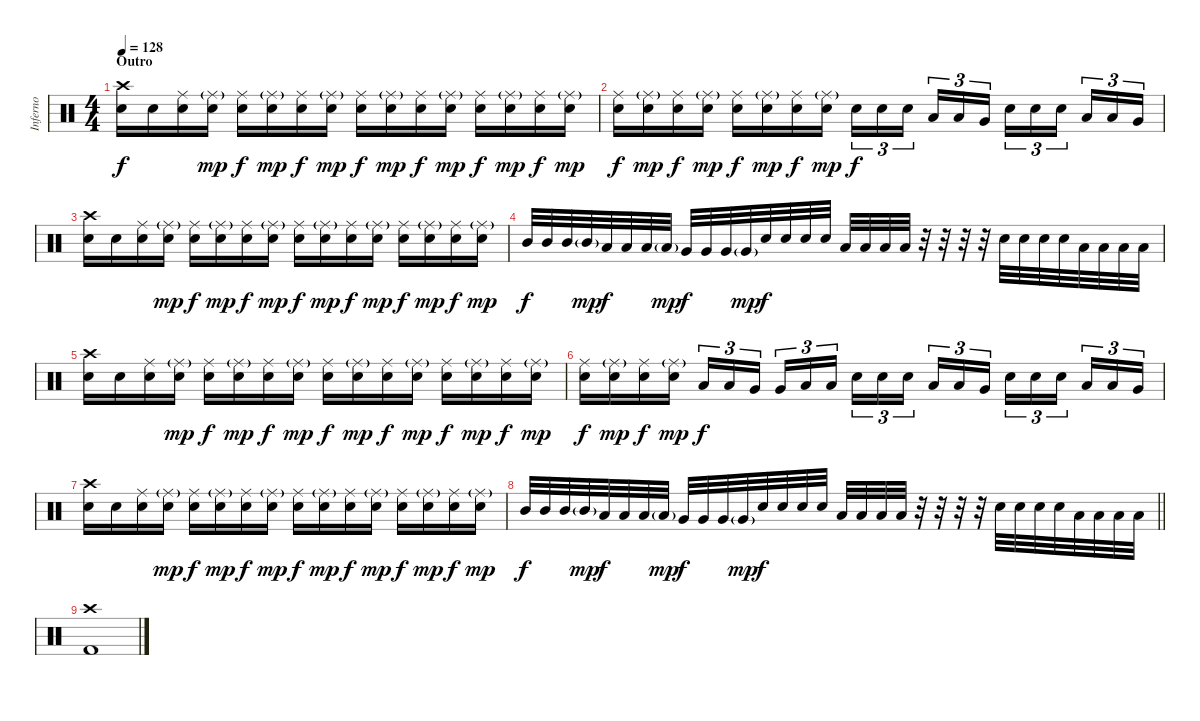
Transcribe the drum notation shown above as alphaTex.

\track ("Inferno" "Inferno") {instrument percussion}
\staff {score}
\articulation defaults
\ts (4 4)
\section ("" "Outro")
\tempo 128
\clef neutral
\ks c
("Crash high (hit)" "Snare (hit) 2").16{dy f} "Snare (hit) 2".16 ("Ride (middle)" "Snare (hit) 2").16 ("Ride (middle)"{g} "Snare (hit) 2").16{dy mp} ("Ride (middle)" "Snare (hit) 2").16{dy f} ("Ride (middle)"{g} "Snare (hit) 2").16{dy mp} ("Ride (middle)" "Snare (hit) 2").16{dy f} ("Ride (middle)"{g} "Snare (hit) 2").16{dy mp} ("Ride (middle)" "Snare (hit) 2").16{dy f} ("Ride (middle)"{g} "Snare (hit) 2").16{dy mp} ("Ride (middle)" "Snare (hit) 2").16{dy f} ("Ride (middle)"{g} "Snare (hit) 2").16{dy mp} ("Ride (middle)" "Snare (hit) 2").16{dy f} ("Ride (middle)"{g} "Snare (hit) 2").16{dy mp} ("Ride (middle)" "Snare (hit) 2").16{dy f} ("Ride (middle)"{g} "Snare (hit) 2").16{dy mp} |
("Ride (middle)" "Snare (hit) 2").16{dy f} ("Ride (middle)"{g} "Snare (hit) 2").16{dy mp} ("Ride (middle)" "Snare (hit) 2").16{dy f} ("Ride (middle)"{g} "Snare (hit) 2").16{dy mp} ("Ride (middle)" "Snare (hit) 2").16{dy f} ("Ride (middle)"{g} "Snare (hit) 2").16{dy mp} ("Ride (middle)" "Snare (hit) 2").16{dy f} ("Ride (middle)"{g} "Snare (hit) 2").16{dy mp} "Snare (hit) 2".16{tu (3 2) dy f} "Snare (hit) 2".16{tu (3 2)} "Snare (hit) 2".16{tu (3 2) beam splitsecondary} "Low Tom (hit)".16{tu (3 2)} "Low Tom (hit)".16{tu (3 2)} "Very Low Tom (hit)".16{tu (3 2)} "Snare (hit) 2".16{tu (3 2)} "Snare (hit) 2".16{tu (3 2)} "Snare (hit) 2".16{tu (3 2) beam splitsecondary} "Low Tom (hit)".16{tu (3 2)} "Low Tom (hit)".16{tu (3 2)} "Very Low Tom (hit)".16{tu (3 2)} |
("Crash high (hit)" "Snare (hit) 2").16 "Snare (hit) 2".16 ("Ride (middle)" "Snare (hit) 2").16 ("Ride (middle)"{g} "Snare (hit) 2").16{dy mp} ("Ride (middle)" "Snare (hit) 2").16{dy f} ("Ride (middle)"{g} "Snare (hit) 2").16{dy mp} ("Ride (middle)" "Snare (hit) 2").16{dy f} ("Ride (middle)"{g} "Snare (hit) 2").16{dy mp} ("Ride (middle)" "Snare (hit) 2").16{dy f} ("Ride (middle)"{g} "Snare (hit) 2").16{dy mp} ("Ride (middle)" "Snare (hit) 2").16{dy f} ("Ride (middle)"{g} "Snare (hit) 2").16{dy mp} ("Ride (middle)" "Snare (hit) 2").16{dy f} ("Ride (middle)"{g} "Snare (hit) 2").16{dy mp} ("Ride (middle)" "Snare (hit) 2").16{dy f} ("Ride (middle)"{g} "Snare (hit) 2").16{dy mp} |
"Mid Tom (hit)".32{dy f} "Mid Tom (hit)".32 "Mid Tom (hit)".32 "Mid Tom (hit)"{g}.32{dy mp} "Low Tom (hit)".32{dy f} "Low Tom (hit)".32 "Low Tom (hit)".32 "Low Tom (hit)"{g}.32{dy mp} "Very Low Tom (hit)".32{dy f} "Very Low Tom (hit)".32 "Very Low Tom (hit)".32 "Very Low Tom (hit)"{g}.32{dy mp} "Snare (hit) 2".32{dy f} "Snare (hit) 2".32 "Snare (hit) 2".32 "Snare (hit) 2".32 "Low Floor Tom (hit)".32 "Low Floor Tom (hit)".32 "Low Floor Tom (hit)".32 "Low Floor Tom (hit)".32 r.32 r.32 r.32 r.32 "Snare (hit) 2".32 "Snare (hit) 2".32 "Snare (hit) 2".32 "Snare (hit) 2".32 "Low Tom (hit)".32 "Low Tom (hit)".32 "Low Tom (hit)".32 "Low Tom (hit)".32 |
("Crash high (hit)" "Snare (hit) 2").16 "Snare (hit) 2".16 ("Ride (middle)" "Snare (hit) 2").16 ("Ride (middle)"{g} "Snare (hit) 2").16{dy mp} ("Ride (middle)" "Snare (hit) 2").16{dy f} ("Ride (middle)"{g} "Snare (hit) 2").16{dy mp} ("Ride (middle)" "Snare (hit) 2").16{dy f} ("Ride (middle)"{g} "Snare (hit) 2").16{dy mp} ("Ride (middle)" "Snare (hit) 2").16{dy f} ("Ride (middle)"{g} "Snare (hit) 2").16{dy mp} ("Ride (middle)" "Snare (hit) 2").16{dy f} ("Ride (middle)"{g} "Snare (hit) 2").16{dy mp} ("Ride (middle)" "Snare (hit) 2").16{dy f} ("Ride (middle)"{g} "Snare (hit) 2").16{dy mp} ("Ride (middle)" "Snare (hit) 2").16{dy f} ("Ride (middle)"{g} "Snare (hit) 2").16{dy mp} |
("Ride (middle)" "Snare (hit) 2").16{dy f} ("Ride (middle)"{g} "Snare (hit) 2").16{dy mp} ("Ride (middle)" "Snare (hit) 2").16{dy f} ("Ride (middle)"{g} "Snare (hit) 2").16{dy mp} "Low Tom (hit)".16{tu (3 2) dy f} "Low Tom (hit)".16{tu (3 2)} "Very Low Tom (hit)".16{tu (3 2) beam splitsecondary} "Very Low Tom (hit)".16{tu (3 2)} "Low Floor Tom (hit)".16{tu (3 2)} "Low Floor Tom (hit)".16{tu (3 2)} "Snare (hit) 2".16{tu (3 2)} "Snare (hit) 2".16{tu (3 2)} "Snare (hit) 2".16{tu (3 2) beam splitsecondary} "Low Tom (hit)".16{tu (3 2)} "Low Tom (hit)".16{tu (3 2)} "Very Low Tom (hit)".16{tu (3 2)} "Snare (hit) 2".16{tu (3 2)} "Snare (hit) 2".16{tu (3 2)} "Snare (hit) 2".16{tu (3 2) beam splitsecondary} "Low Tom (hit)".16{tu (3 2)} "Low Tom (hit)".16{tu (3 2)} "Very Low Tom (hit)".16{tu (3 2)} |
("Crash high (hit)" "Snare (hit) 2").16 "Snare (hit) 2".16 ("Ride (middle)" "Snare (hit) 2").16 ("Ride (middle)"{g} "Snare (hit) 2").16{dy mp} ("Ride (middle)" "Snare (hit) 2").16{dy f} ("Ride (middle)"{g} "Snare (hit) 2").16{dy mp} ("Ride (middle)" "Snare (hit) 2").16{dy f} ("Ride (middle)"{g} "Snare (hit) 2").16{dy mp} ("Ride (middle)" "Snare (hit) 2").16{dy f} ("Ride (middle)"{g} "Snare (hit) 2").16{dy mp} ("Ride (middle)" "Snare (hit) 2").16{dy f} ("Ride (middle)"{g} "Snare (hit) 2").16{dy mp} ("Ride (middle)" "Snare (hit) 2").16{dy f} ("Ride (middle)"{g} "Snare (hit) 2").16{dy mp} ("Ride (middle)" "Snare (hit) 2").16{dy f} ("Ride (middle)"{g} "Snare (hit) 2").16{dy mp} |
\barLineRight lightlight "Mid Tom (hit)".32{dy f} "Mid Tom (hit)".32 "Mid Tom (hit)".32 "Mid Tom (hit)"{g}.32{dy mp} "Low Tom (hit)".32{dy f} "Low Tom (hit)".32 "Low Tom (hit)".32 "Low Tom (hit)"{g}.32{dy mp} "Very Low Tom (hit)".32{dy f} "Very Low Tom (hit)".32 "Very Low Tom (hit)".32 "Very Low Tom (hit)"{g}.32{dy mp} "Snare (hit) 2".32{dy f} "Snare (hit) 2".32 "Snare (hit) 2".32 "Snare (hit) 2".32 "Low Floor Tom (hit)".32 "Low Floor Tom (hit)".32 "Low Floor Tom (hit)".32 "Low Floor Tom (hit)".32
r.32 r.32 r.32 r.32 "Snare (hit) 2".32 "Snare (hit) 2".32 "Snare (hit) 2".32 "Snare (hit) 2".32 "Low Tom (hit)".32 "Low Tom (hit)".32 "Low Tom (hit)".32 "Low Tom (hit)".32 |
("Crash high (hit)" "Kick (hit) 2").1
